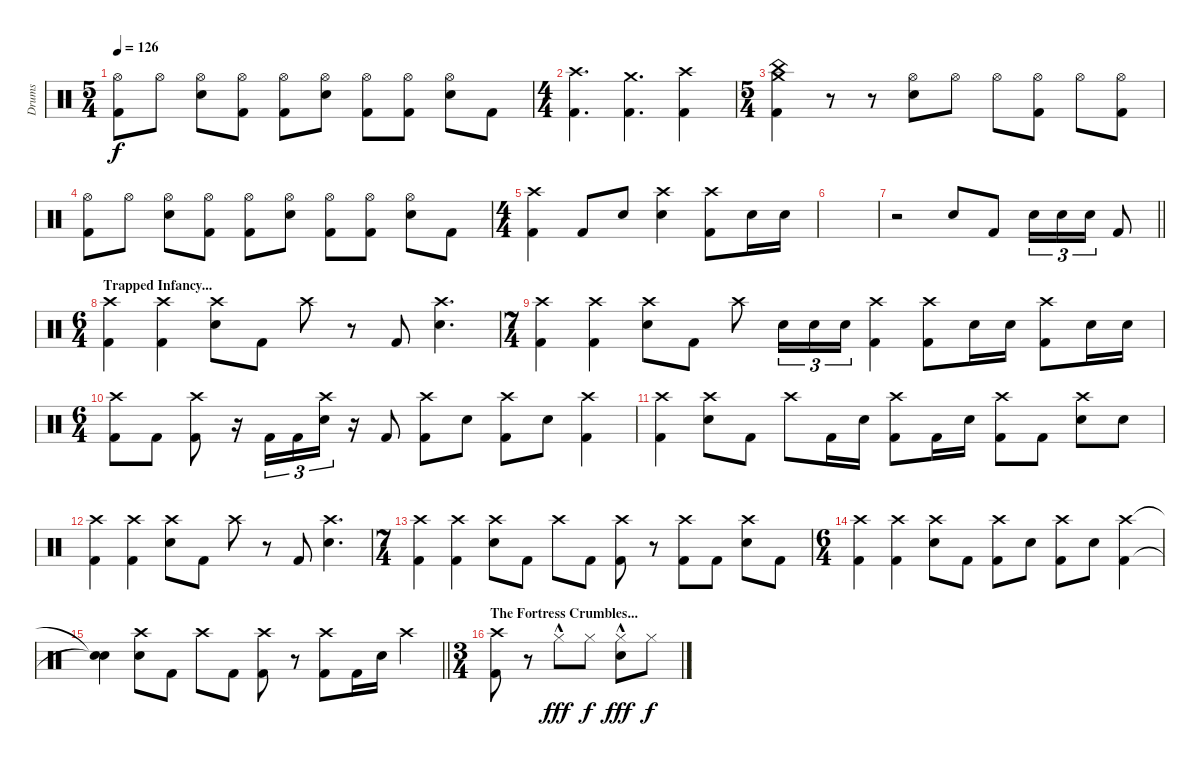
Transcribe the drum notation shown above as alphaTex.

\track ("Drums" "Drums") {instrument percussion}
\staff {score}
\articulation defaults
\ts (5 4)
\tempo 126
\clef neutral
\ks c
("Hi-Hat (open)" "Kick (hit) 2").8{dy f} "Hi-Hat (open)".8 ("Hi-Hat (open)" "Snare (hit) 2").8 ("Hi-Hat (open)" "Kick (hit) 2").8 ("Hi-Hat (open)" "Kick (hit) 2").8 ("Hi-Hat (open)" "Snare (hit) 2").8 ("Hi-Hat (open)" "Kick (hit) 2").8 ("Hi-Hat (open)" "Kick (hit) 2").8 ("Hi-Hat (open)" "Snare (hit) 2").8 "Kick (hit) 2".8 |
\ts (4 4)
("Crash high (hit)" "Kick (hit) 2").4{d} ("Crash medium (hit)" "Kick (hit) 2").4{d} ("Crash high (hit)" "Kick (hit) 2").4 |
\ts (5 4)
("China (hit)" "Crash medium (hit)" "Kick (hit) 2").4 r.8 r.8 ("Hi-Hat (open)" "Snare (hit) 2").8 "Hi-Hat (open)".8 "Hi-Hat (open)".8 ("Hi-Hat (open)" "Kick (hit) 2").8 "Hi-Hat (open)".8 ("Hi-Hat (open)" "Kick (hit) 2").8 |
("Hi-Hat (open)" "Kick (hit) 2").8 "Hi-Hat (open)".8 ("Hi-Hat (open)" "Snare (hit) 2").8 ("Hi-Hat (open)" "Kick (hit) 2").8 ("Hi-Hat (open)" "Kick (hit) 2").8 ("Hi-Hat (open)" "Snare (hit) 2").8 ("Hi-Hat (open)" "Kick (hit) 2").8 ("Hi-Hat (open)" "Kick (hit) 2").8 ("Hi-Hat (open)" "Snare (hit) 2").8 "Kick (hit) 2".8 |
\ts (4 4)
("Crash high (hit)" "Kick (hit) 2").4 "Kick (hit) 2".8 "Snare (hit) 2".8 ("Crash high (hit)" "Snare (hit) 2").4 ("Crash high (hit)" "Kick (hit) 2").8 "Snare (hit) 2".16 "Snare (hit) 2".16 |
|
\barLineRight lightlight
r.2 "Snare (hit) 2".8 "Kick (hit) 2".8 "Snare (hit) 2".16{tu (3 2)} "Snare (hit) 2".16{tu (3 2)} "Snare (hit) 2".16{tu (3 2)} "Kick (hit) 2".8 |
\ts (6 4)
\section ("" "Trapped Infancy...")
("Crash high (hit)" "Kick (hit) 2").4 ("Crash high (hit)" "Kick (hit) 2").4 ("Crash high (hit)" "Snare (hit) 2").8 "Kick (hit) 2".8 "Crash high (hit)".8 r.8 "Kick (hit) 2".8 ("Crash high (hit)" "Snare (hit) 2").4{d} |
\ts (7 4)
("Crash high (hit)" "Kick (hit) 2").4 ("Crash high (hit)" "Kick (hit) 2").4 ("Crash high (hit)" "Snare (hit) 2").8 "Kick (hit) 2".8 "Crash high (hit)".8 "Snare (hit) 2".16{tu (3 2)} "Snare (hit) 2".16{tu (3 2)} "Snare (hit) 2".16{tu (3 2)} ("Crash high (hit)" "Kick (hit) 2").4 ("Crash high (hit)" "Kick (hit) 2").8 "Snare (hit) 2".16 "Snare (hit) 2".16 ("Crash high (hit)" "Kick (hit) 2").8 "Snare (hit) 2".16 "Snare (hit) 2".16 |
\ts (6 4)
("Crash high (hit)" "Kick (hit) 2").8 "Kick (hit) 2".8 ("Crash high (hit)" "Kick (hit) 2").8 r.16 "Kick (hit) 2".16{tu (3 2)} "Kick (hit) 2".16{tu (3 2)} ("Crash high (hit)" "Snare (hit) 2").16{tu (3 2)} r.16 "Kick (hit) 2".8 ("Crash high (hit)" "Kick (hit) 2").8 "Snare (hit) 2".8 ("Crash high (hit)" "Kick (hit) 2").8 "Snare (hit) 2".8 ("Crash high (hit)" "Kick (hit) 2").4 |
("Crash high (hit)" "Kick (hit) 2").4 ("Crash high (hit)" "Snare (hit) 2").8 "Kick (hit) 2".8 "Crash high (hit)".8 "Kick (hit) 2".16 "Snare (hit) 2".16 ("Crash high (hit)" "Kick (hit) 2").8 "Kick (hit) 2".16 "Snare (hit) 2".16 ("Crash high (hit)" "Kick (hit) 2").8 "Kick (hit) 2".8 ("Crash high (hit)" "Snare (hit) 2").8 "Snare (hit) 2".8 |
("Crash high (hit)" "Kick (hit) 2").4 ("Crash high (hit)" "Kick (hit) 2").4 ("Crash high (hit)" "Snare (hit) 2").8 "Kick (hit) 2".8 "Crash high (hit)".8 r.8 "Kick (hit) 2".8 ("Crash high (hit)" "Snare (hit) 2").4{d} |
\ts (7 4)
("Crash high (hit)" "Kick (hit) 2").4 ("Crash high (hit)" "Kick (hit) 2").4 ("Crash high (hit)" "Snare (hit) 2").8 "Kick (hit) 2".8 "Crash high (hit)".8 "Kick (hit) 2".8 ("Crash high (hit)" "Kick (hit) 2").8 r.8 ("Crash high (hit)" "Kick (hit) 2").8 "Kick (hit) 2".8 ("Crash high (hit)" "Snare (hit) 2").8 "Kick (hit) 2".8 |
\ts (6 4)
("Crash high (hit)" "Kick (hit) 2").4 ("Crash high (hit)" "Kick (hit) 2").4 ("Crash high (hit)" "Snare (hit) 2").8 "Kick (hit) 2".8 ("Crash high (hit)" "Kick (hit) 2").8 "Snare (hit) 2".8 ("Crash high (hit)" "Kick (hit) 2").8 "Snare (hit) 2".8 ("Crash high (hit)" "Kick (hit) 2").4 |
\barLineRight lightlight
("Snare (hit)"{t} "Snare (hit)"{t}).4 ("Crash high (hit)" "Snare (hit) 2").8 "Kick (hit) 2".8 "Crash high (hit)".8 "Kick (hit) 2".8 ("Crash high (hit)" "Kick (hit) 2").8 r.8 ("Crash high (hit)" "Kick (hit) 2").8 "Kick (hit) 2".16 "Snare (hit) 2".16 "Crash high (hit)".4 |
\ts (3 4)
\section ("" "The Fortress Crumbles...")
("Crash high (hit)" "Kick (hit) 2").8 r.8 "Hi-Hat (closed)"{hac}.8{dy fff} "Hi-Hat (closed)".8{dy f} ("Hi-Hat (closed)"{hac} "Snare (hit) 2"{hac}).8{dy fff} "Hi-Hat (closed)".8{dy f}
